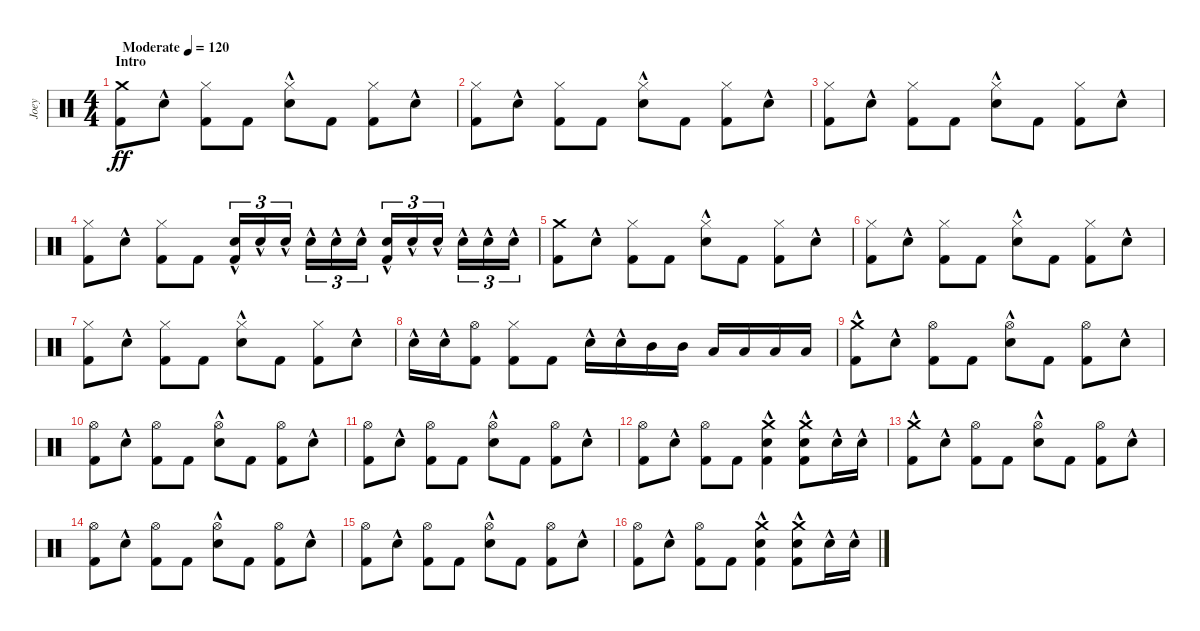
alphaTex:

\track ("Joey" "Joey") {instrument percussion}
\staff {score}
\articulation defaults
\ts (4 4)
\section ("" "Intro")
\tempo (120 "Moderate")
\tempo 165
\tempo (120 "Moderate")
\clef neutral
\ks c
("Crash medium (hit)" "Kick (hit) 2").8{dy ff volume 16} "Snare (hit) 2"{hac}.8 ("Hi-Hat (closed)" "Kick (hit) 2").8 "Kick (hit) 2".8 ("Hi-Hat (closed)" "Snare (hit) 2"{hac}).8 "Kick (hit) 2".8 ("Hi-Hat (closed)" "Kick (hit) 2").8 "Snare (hit) 2"{hac}.8 |
("Hi-Hat (closed)" "Kick (hit) 2").8 "Snare (hit) 2"{hac}.8 ("Hi-Hat (closed)" "Kick (hit) 2").8 "Kick (hit) 2".8 ("Hi-Hat (closed)" "Snare (hit) 2"{hac}).8 "Kick (hit) 2".8 ("Hi-Hat (closed)" "Kick (hit) 2").8 "Snare (hit) 2"{hac}.8 |
("Hi-Hat (closed)" "Kick (hit) 2").8 "Snare (hit) 2"{hac}.8 ("Hi-Hat (closed)" "Kick (hit) 2").8 "Kick (hit) 2".8 ("Hi-Hat (closed)" "Snare (hit) 2"{hac}).8 "Kick (hit) 2".8 ("Hi-Hat (closed)" "Kick (hit) 2").8 "Snare (hit) 2"{hac}.8 |
("Hi-Hat (closed)" "Kick (hit) 2").8 "Snare (hit) 2"{hac}.8 ("Hi-Hat (closed)" "Kick (hit) 2").8 "Kick (hit) 2".8 ("Snare (hit) 2"{hac} "Kick (hit) 2").16{tu (3 2)} "Snare (hit) 2"{hac}.16{tu (3 2)} "Snare (hit) 2"{hac}.16{tu (3 2) beam splitsecondary} "Snare (hit) 2"{hac}.16{tu (3 2)} "Snare (hit) 2"{hac}.16{tu (3 2)} "Snare (hit) 2"{hac}.16{tu (3 2)} ("Snare (hit) 2"{hac} "Kick (hit) 2").16{tu (3 2)} "Snare (hit) 2"{hac}.16{tu (3 2)} "Snare (hit) 2"{hac}.16{tu (3 2) beam splitsecondary} "Snare (hit) 2"{hac}.16{tu (3 2)} "Snare (hit) 2"{hac}.16{tu (3 2)} "Snare (hit) 2"{hac}.16{tu (3 2)} |
("Crash medium (hit)" "Kick (hit) 2").8 "Snare (hit) 2"{hac}.8 ("Hi-Hat (closed)" "Kick (hit) 2").8 "Kick (hit) 2".8 ("Hi-Hat (closed)" "Snare (hit) 2"{hac}).8 "Kick (hit) 2".8 ("Hi-Hat (closed)" "Kick (hit) 2").8 "Snare (hit) 2"{hac}.8 |
("Hi-Hat (closed)" "Kick (hit) 2").8 "Snare (hit) 2"{hac}.8 ("Hi-Hat (closed)" "Kick (hit) 2").8 "Kick (hit) 2".8 ("Hi-Hat (closed)" "Snare (hit) 2"{hac}).8 "Kick (hit) 2".8 ("Hi-Hat (closed)" "Kick (hit) 2").8 "Snare (hit) 2"{hac}.8 |
("Hi-Hat (closed)" "Kick (hit) 2").8 "Snare (hit) 2"{hac}.8 ("Hi-Hat (closed)" "Kick (hit) 2").8 "Kick (hit) 2".8 ("Hi-Hat (closed)" "Snare (hit) 2"{hac}).8 "Kick (hit) 2".8 ("Hi-Hat (closed)" "Kick (hit) 2").8 "Snare (hit) 2"{hac}.8 |
"Snare (hit) 2"{hac}.16 "Snare (hit) 2"{hac}.16 ("Hi-Hat (open)" "Kick (hit) 2").8 ("Hi-Hat (closed)" "Kick (hit) 2").8 "Kick (hit) 2".8 "Snare (hit) 2"{hac}.16 "Snare (hit) 2"{hac}.16 "Mid Tom (hit)".16 "Mid Tom (hit)".16 "Low Tom (hit)".16 "Low Tom (hit)".16 "Low Floor Tom (hit)".16 "Low Floor Tom (hit)".16 |
("Crash medium (hit)"{hac} "Kick (hit) 2").8 "Snare (hit) 2"{hac}.8 ("Hi-Hat (open)" "Kick (hit) 2").8 "Kick (hit) 2".8 ("Hi-Hat (open)" "Snare (hit) 2"{hac}).8 "Kick (hit) 2".8 ("Hi-Hat (open)" "Kick (hit) 2").8 "Snare (hit) 2"{hac}.8 |
("Hi-Hat (open)" "Kick (hit) 2").8 "Snare (hit) 2"{hac}.8 ("Hi-Hat (open)" "Kick (hit) 2").8 "Kick (hit) 2".8 ("Hi-Hat (open)" "Snare (hit) 2"{hac}).8 "Kick (hit) 2".8 ("Hi-Hat (open)" "Kick (hit) 2").8 "Snare (hit) 2"{hac}.8 |
("Hi-Hat (open)" "Kick (hit) 2").8 "Snare (hit) 2"{hac}.8 ("Hi-Hat (open)" "Kick (hit) 2").8 "Kick (hit) 2".8 ("Hi-Hat (open)" "Snare (hit) 2"{hac}).8 "Kick (hit) 2".8 ("Hi-Hat (open)" "Kick (hit) 2").8 "Snare (hit) 2"{hac}.8 |
("Hi-Hat (open)" "Kick (hit) 2").8 "Snare (hit) 2"{hac}.8 ("Hi-Hat (open)" "Kick (hit) 2").8 "Kick (hit) 2".8 ("Crash medium (hit)" "Snare (hit) 2"{hac} "Kick (hit) 2").4 ("Crash medium (hit)" "Snare (hit) 2"{hac} "Kick (hit) 2").8 "Snare (hit) 2"{hac}.16 "Snare (hit) 2"{hac}.16 |
("Crash medium (hit)"{hac} "Kick (hit) 2").8 "Snare (hit) 2"{hac}.8 ("Hi-Hat (open)" "Kick (hit) 2").8 "Kick (hit) 2".8 ("Hi-Hat (open)" "Snare (hit) 2"{hac}).8 "Kick (hit) 2".8 ("Hi-Hat (open)" "Kick (hit) 2").8 "Snare (hit) 2"{hac}.8 |
("Hi-Hat (open)" "Kick (hit) 2").8 "Snare (hit) 2"{hac}.8 ("Hi-Hat (open)" "Kick (hit) 2").8 "Kick (hit) 2".8 ("Hi-Hat (open)" "Snare (hit) 2"{hac}).8 "Kick (hit) 2".8 ("Hi-Hat (open)" "Kick (hit) 2").8 "Snare (hit) 2"{hac}.8 |
("Hi-Hat (open)" "Kick (hit) 2").8 "Snare (hit) 2"{hac}.8 ("Hi-Hat (open)" "Kick (hit) 2").8 "Kick (hit) 2".8 ("Hi-Hat (open)" "Snare (hit) 2"{hac}).8 "Kick (hit) 2".8 ("Hi-Hat (open)" "Kick (hit) 2").8 "Snare (hit) 2"{hac}.8 |
("Hi-Hat (open)" "Kick (hit) 2").8 "Snare (hit) 2"{hac}.8 ("Hi-Hat (open)" "Kick (hit) 2").8 "Kick (hit) 2".8 ("Crash medium (hit)" "Snare (hit) 2"{hac} "Kick (hit) 2").4 ("Crash medium (hit)" "Snare (hit) 2"{hac} "Kick (hit) 2").8 "Snare (hit) 2"{hac}.16 "Snare (hit) 2"{hac}.16
